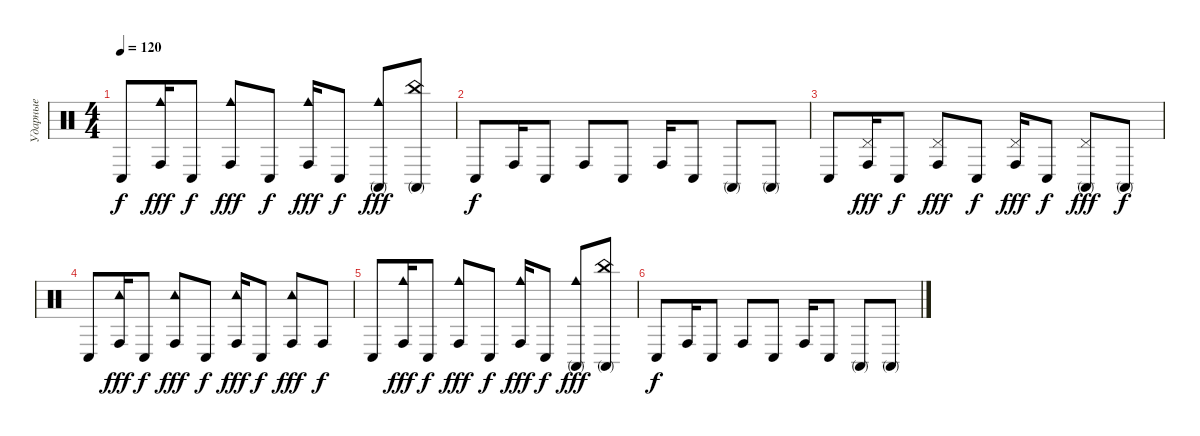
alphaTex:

\track ("Ударные" "Ударные") {instrument percussion}
\staff {score}
\articulation defaults
\ts (4 4)
\tempo 120
\clef neutral
\ks c "Conga low (hit)".8{dy f}
("Conga high (hit)" "Cowbell medium (hit)").16{dy fff} "Conga low (hit)".8{dy f} ("Conga high (hit)" "Cowbell medium (hit)").8{dy fff} "Conga low (hit)".8{dy f} ("Conga high (hit)" "Cowbell medium (hit)").16{dy fff} "Conga low (hit)".8{dy f} ("Conga high (mute)" "Cowbell medium (hit)").8{dy fff} ("Conga high (mute)" "China (hit)").8 |
"Conga low (hit)".8{dy f} "Conga high (hit)".16 "Conga low (hit)".8 "Conga high (hit)".8 "Conga low (hit)".8 "Conga high (hit)".16 "Conga low (hit)".8 "Conga high (mute)".8 "Conga high (mute)".8 |
"Conga low (hit)".8 ("Conga high (hit)" "Pedal Hi-Hat (hit)").16{dy fff} "Conga low (hit)".8{dy f} ("Conga high (hit)" "Pedal Hi-Hat (hit)").8{dy fff} "Conga low (hit)".8{dy f} ("Conga high (hit)" "Pedal Hi-Hat (hit)").16{dy fff} "Conga low (hit)".8{dy f} ("Conga high (mute)" "Pedal Hi-Hat (hit)").8{dy fff} "Conga high (mute)".8{dy f} |
"Conga low (hit)".8 ("Conga high (hit)" "Tambourine (hit)").16{dy fff} "Conga low (hit)".8{dy f} ("Conga high (hit)" "Tambourine (hit)").8{dy fff} "Conga low (hit)".8{dy f} ("Conga high (hit)" "Tambourine (hit)").16{dy fff} "Conga low (hit)".8{dy f} ("Conga high (hit)" "Tambourine (hit)").8{dy fff} "Conga high (hit)".8{dy f} |
"Conga low (hit)".8 ("Conga high (hit)" "Cowbell medium (hit)").16{dy fff} "Conga low (hit)".8{dy f} ("Conga high (hit)" "Cowbell medium (hit)").8{dy fff} "Conga low (hit)".8{dy f} ("Conga high (hit)" "Cowbell medium (hit)").16{dy fff} "Conga low (hit)".8{dy f} ("Conga high (mute)" "Cowbell medium (hit)").8{dy fff} ("Conga high (mute)" "China (hit)").8 |
"Conga low (hit)".8{dy f} "Conga high (hit)".16 "Conga low (hit)".8 "Conga high (hit)".8 "Conga low (hit)".8 "Conga high (hit)".16 "Conga low (hit)".8 "Conga high (mute)".8 "Conga high (mute)".8
